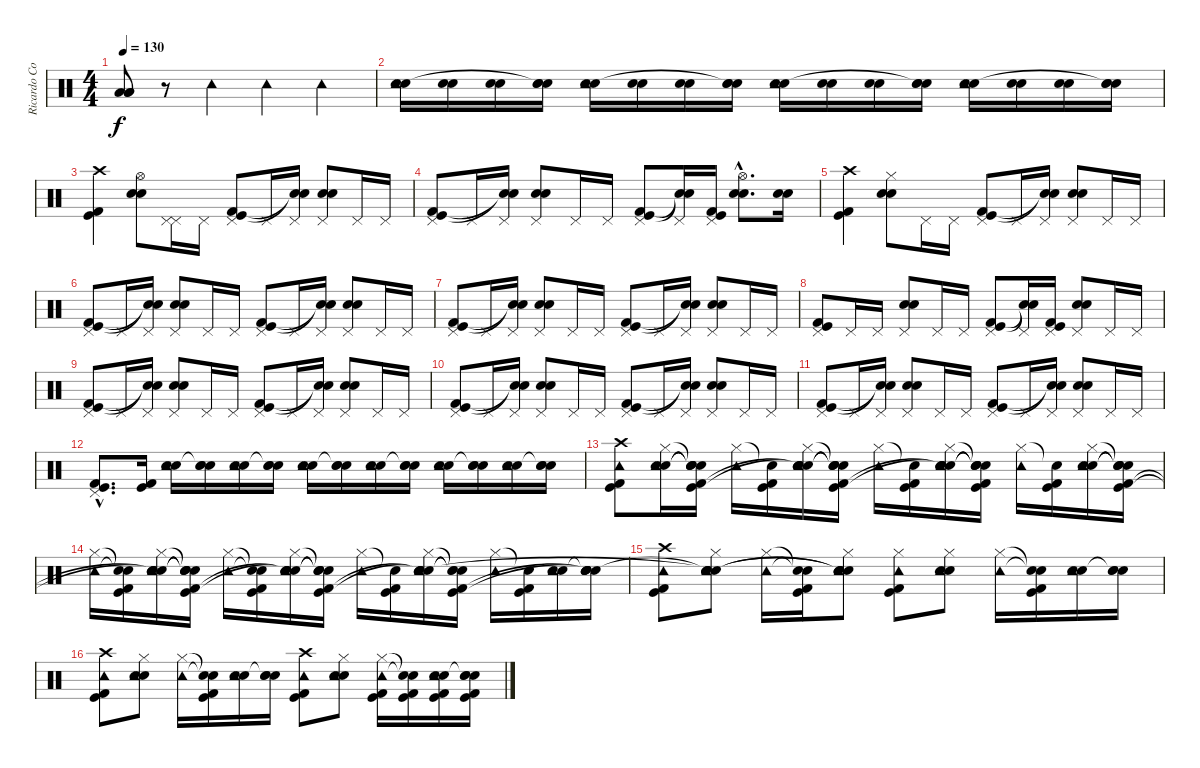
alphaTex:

\track ("Ricardo Confessori" "Ricardo Co") {instrument percussion}
\staff {score}
\articulation defaults
\ts (4 4)
\tempo 130
\clef neutral
\ks c
("Low Tom (hit)" "Low Tom (hit)" "Low Tom (hit)").8{dy f} r.8 "Tambourine (hit)".4 "Tambourine (hit)".4 "Tambourine (hit)".4 |
("Electric Snare (hit)" "Snare (hit) 2" "Tambourine (hit)").16 ("Electric Snare (hit)" "Snare (hit) 2").16 ("Electric Snare (hit)" "Snare (hit) 2").16 ("Electric Snare (hit)" "Snare (hit) 2" "Snare (hit)"{t}).16 ("Electric Snare (hit)" "Snare (hit) 2" "Tambourine (hit)").16 ("Electric Snare (hit)" "Snare (hit) 2").16 ("Electric Snare (hit)" "Snare (hit) 2").16 ("Electric Snare (hit)" "Snare (hit) 2" "Snare (hit)"{t}).16 ("Electric Snare (hit)" "Snare (hit) 2" "Tambourine (hit)").16 ("Electric Snare (hit)" "Snare (hit) 2").16 ("Electric Snare (hit)" "Snare (hit) 2").16 ("Electric Snare (hit)" "Snare (hit) 2" "Snare (hit)"{t}).16 ("Electric Snare (hit)" "Snare (hit) 2" "Tambourine (hit)").16 ("Electric Snare (hit)" "Snare (hit) 2").16 ("Electric Snare (hit)" "Snare (hit) 2").16 ("Electric Snare (hit)" "Snare (hit) 2" "Snare (hit)"{t}).16 |
("Crash high (hit)" "Kick (hit)" "Kick (hit) 2").4 ("Hi-Hat (open)" "Electric Snare (hit)" "Snare (hit) 2").8 ("Pedal Hi-Hat (hit)" "Pedal Hi-Hat (hit)").16 "Pedal Hi-Hat (hit)".16 ("Pedal Hi-Hat (hit)" "Kick (hit)" "Kick (hit) 2").8 "Pedal Hi-Hat (hit)".16 ("Pedal Hi-Hat (hit)" "Snare (hit)"{t} "Snare (hit)"{t}).16 ("Pedal Hi-Hat (hit)" "Electric Snare (hit)" "Snare (hit) 2").8 "Pedal Hi-Hat (hit)".16 "Pedal Hi-Hat (hit)".16 |
("Pedal Hi-Hat (hit)" "Kick (hit) 2" "Kick (hit)").8 "Pedal Hi-Hat (hit)".16 ("Pedal Hi-Hat (hit)" "Snare (hit)"{t} "Snare (hit)"{t}).16 ("Pedal Hi-Hat (hit)" "Electric Snare (hit)" "Snare (hit) 2").8 "Pedal Hi-Hat (hit)".16 "Pedal Hi-Hat (hit)".16 ("Pedal Hi-Hat (hit)" "Kick (hit)" "Kick (hit) 2").8 ("Pedal Hi-Hat (hit)" "Snare (hit)"{t} "Snare (hit)"{t}).16 ("Pedal Hi-Hat (hit)" "Kick (hit)" "Kick (hit) 2").16 ("Hi-Hat (open)"{hac} "Electric Snare (hit)"{hac} "Snare (hit) 2"{hac}).8{d} ("Electric Snare (hit)" "Snare (hit) 2").16 |
("Crash high (hit)" "Kick (hit) 2" "Kick (hit)").4 ("Hi-Hat (closed)" "Electric Snare (hit)" "Snare (hit) 2").8 "Pedal Hi-Hat (hit)".16 "Pedal Hi-Hat (hit)".16 ("Pedal Hi-Hat (hit)" "Kick (hit)" "Kick (hit) 2").8 "Pedal Hi-Hat (hit)".16 ("Pedal Hi-Hat (hit)" "Snare (hit)"{t} "Snare (hit)"{t}).16 ("Pedal Hi-Hat (hit)" "Electric Snare (hit)" "Snare (hit) 2").8 "Pedal Hi-Hat (hit)".16 "Pedal Hi-Hat (hit)".16 |
("Pedal Hi-Hat (hit)" "Kick (hit)" "Kick (hit) 2").8 "Pedal Hi-Hat (hit)".16 ("Pedal Hi-Hat (hit)" "Snare (hit)"{t} "Snare (hit)"{t}).16 ("Pedal Hi-Hat (hit)" "Electric Snare (hit)" "Snare (hit) 2").8 "Pedal Hi-Hat (hit)".16 "Pedal Hi-Hat (hit)".16 ("Pedal Hi-Hat (hit)" "Kick (hit)" "Kick (hit) 2").8 "Pedal Hi-Hat (hit)".16 ("Pedal Hi-Hat (hit)" "Snare (hit)"{t} "Snare (hit)"{t}).16 ("Pedal Hi-Hat (hit)" "Electric Snare (hit)" "Snare (hit) 2").8 "Pedal Hi-Hat (hit)".16 "Pedal Hi-Hat (hit)".16 |
("Pedal Hi-Hat (hit)" "Kick (hit)" "Kick (hit) 2").8 "Pedal Hi-Hat (hit)".16 ("Pedal Hi-Hat (hit)" "Snare (hit)"{t} "Snare (hit)"{t}).16 ("Pedal Hi-Hat (hit)" "Electric Snare (hit)" "Snare (hit) 2").8 "Pedal Hi-Hat (hit)".16 "Pedal Hi-Hat (hit)".16 ("Pedal Hi-Hat (hit)" "Kick (hit)" "Kick (hit) 2").8 "Pedal Hi-Hat (hit)".16 ("Pedal Hi-Hat (hit)" "Snare (hit)"{t} "Snare (hit)"{t}).16 ("Pedal Hi-Hat (hit)" "Electric Snare (hit)" "Snare (hit) 2").8 "Pedal Hi-Hat (hit)".16 "Pedal Hi-Hat (hit)".16 |
("Pedal Hi-Hat (hit)" "Kick (hit) 2" "Kick (hit)").8 "Pedal Hi-Hat (hit)".16 "Pedal Hi-Hat (hit)".16 ("Pedal Hi-Hat (hit)" "Electric Snare (hit)" "Snare (hit) 2").8 "Pedal Hi-Hat (hit)".16 "Pedal Hi-Hat (hit)".16 ("Pedal Hi-Hat (hit)" "Kick (hit) 2" "Kick (hit)").8 ("Pedal Hi-Hat (hit)" "Snare (hit)"{t} "Snare (hit)"{t}).16 ("Pedal Hi-Hat (hit)" "Kick (hit) 2" "Kick (hit)").16 ("Pedal Hi-Hat (hit)" "Electric Snare (hit)" "Snare (hit) 2").8 "Pedal Hi-Hat (hit)".16 "Pedal Hi-Hat (hit)".16 |
("Pedal Hi-Hat (hit)" "Kick (hit)" "Kick (hit) 2").8 "Pedal Hi-Hat (hit)".16 ("Pedal Hi-Hat (hit)" "Snare (hit)"{t} "Snare (hit)"{t}).16 ("Pedal Hi-Hat (hit)" "Electric Snare (hit)" "Snare (hit) 2").8 "Pedal Hi-Hat (hit)".16 "Pedal Hi-Hat (hit)".16 ("Pedal Hi-Hat (hit)" "Kick (hit)" "Kick (hit) 2").8 "Pedal Hi-Hat (hit)".16 ("Pedal Hi-Hat (hit)" "Snare (hit)"{t} "Snare (hit)"{t}).16 ("Pedal Hi-Hat (hit)" "Electric Snare (hit)" "Snare (hit) 2").8 "Pedal Hi-Hat (hit)".16 "Pedal Hi-Hat (hit)".16 |
("Pedal Hi-Hat (hit)" "Kick (hit)" "Kick (hit) 2").8 "Pedal Hi-Hat (hit)".16 ("Pedal Hi-Hat (hit)" "Snare (hit)"{t} "Snare (hit)"{t}).16 ("Pedal Hi-Hat (hit)" "Electric Snare (hit)" "Snare (hit) 2").8 "Pedal Hi-Hat (hit)".16 "Pedal Hi-Hat (hit)".16 ("Pedal Hi-Hat (hit)" "Kick (hit)" "Kick (hit) 2").8 "Pedal Hi-Hat (hit)".16 ("Pedal Hi-Hat (hit)" "Snare (hit)"{t} "Snare (hit)"{t}).16 ("Pedal Hi-Hat (hit)" "Electric Snare (hit)" "Snare (hit) 2").8 "Pedal Hi-Hat (hit)".16 "Pedal Hi-Hat (hit)".16 |
("Pedal Hi-Hat (hit)" "Kick (hit)" "Kick (hit) 2").8 "Pedal Hi-Hat (hit)".16 ("Pedal Hi-Hat (hit)" "Snare (hit)"{t} "Snare (hit)"{t}).16 ("Pedal Hi-Hat (hit)" "Electric Snare (hit)" "Snare (hit) 2").8 "Pedal Hi-Hat (hit)".16 "Pedal Hi-Hat (hit)".16 ("Pedal Hi-Hat (hit)" "Kick (hit)" "Kick (hit) 2").8 "Pedal Hi-Hat (hit)".16 ("Pedal Hi-Hat (hit)" "Snare (hit)"{t} "Snare (hit)"{t}).16 ("Pedal Hi-Hat (hit)" "Electric Snare (hit)" "Snare (hit) 2").8 "Pedal Hi-Hat (hit)".16 "Pedal Hi-Hat (hit)".16 |
("Pedal Hi-Hat (hit)"{hac} "Kick (hit)"{hac} "Kick (hit) 2"{hac}).8{d} ("Kick (hit) 2" "Kick (hit)").16 ("Electric Snare (hit)" "Snare (hit) 2" "Tambourine (hit)").16 ("Electric Snare (hit)" "Snare (hit) 2" "Snare (hit)"{t}).16 ("Electric Snare (hit)" "Snare (hit) 2" "Tambourine (hit)").16 ("Electric Snare (hit)" "Snare (hit) 2" "Snare (hit)"{t}).16 ("Electric Snare (hit)" "Snare (hit) 2" "Tambourine (hit)").16 ("Electric Snare (hit)" "Snare (hit) 2" "Snare (hit)"{t}).16 ("Electric Snare (hit)" "Snare (hit) 2" "Tambourine (hit)").16 ("Electric Snare (hit)" "Snare (hit) 2" "Snare (hit)"{t}).16 ("Electric Snare (hit)" "Snare (hit) 2" "Tambourine (hit)").16 ("Electric Snare (hit)" "Snare (hit) 2" "Snare (hit)"{t}).16 ("Electric Snare (hit)" "Snare (hit) 2" "Tambourine (hit)").16 ("Electric Snare (hit)" "Snare (hit) 2" "Snare (hit)"{t}).16 |
("Crash high (hit)" "Tambourine (hit)" "Kick (hit) 2" "Kick (hit)").8 ("Hi-Hat (closed)" "Electric Snare (hit)" "Snare (hit) 2" "Tambourine (hit)").16 ("Snare (hit)"{t} "Snare (hit)"{t} "Snare (hit)"{t} "Snare (hit)"{t} "Kick (hit) 2" "Kick (hit)").16 ("Hi-Hat (closed)" "Tambourine (hit)").16 ("Snare (hit)"{t} "Kick (hit) 2" "Kick (hit)").16 ("Hi-Hat (closed)" "Electric Snare (hit)" "Snare (hit) 2" "Tambourine (hit)" "Snare (hit)"{t} "Snare (hit)"{t}).16 ("Snare (hit)"{t} "Snare (hit)"{t} "Snare (hit)"{t} "Snare (hit)"{t} "Kick (hit)" "Kick (hit) 2").16 ("Hi-Hat (closed)" "Tambourine (hit)").16 ("Snare (hit)"{t} "Kick (hit)" "Kick (hit) 2").16 ("Hi-Hat (closed)" "Electric Snare (hit)" "Snare (hit) 2" "Tambourine (hit)" "Snare (hit)"{t} "Snare (hit)"{t}).16 ("Snare (hit)"{t} "Snare (hit)"{t} "Snare (hit)"{t} "Snare (hit)"{t} "Kick (hit)" "Kick (hit) 2").16 ("Hi-Hat (closed)" "Tambourine (hit)").16 ("Snare (hit)"{t} "Kick (hit)" "Kick (hit) 2").16 ("Hi-Hat (closed)" "Electric Snare (hit)" "Snare (hit) 2" "Tambourine (hit)").16 ("Snare (hit)"{t} "Snare (hit)"{t} "Snare (hit)"{t} "Snare (hit)"{t} "Kick (hit)" "Kick (hit) 2").16 |
("Hi-Hat (closed)" "Tambourine (hit)").16 ("Snare (hit)"{t} "Snare (hit)"{t} "Kick (hit)" "Kick (hit) 2").16 ("Hi-Hat (closed)" "Electric Snare (hit)" "Snare (hit) 2" "Tambourine (hit)" "Snare (hit)"{t} "Snare (hit)"{t}).16 ("Snare (hit)"{t} "Snare (hit)"{t} "Snare (hit)"{t} "Snare (hit)"{t} "Kick (hit)" "Kick (hit) 2").16 ("Hi-Hat (closed)" "Tambourine (hit)").16 ("Snare (hit)"{t} "Snare (hit)"{t} "Kick (hit)" "Kick (hit) 2").16 ("Hi-Hat (closed)" "Electric Snare (hit)" "Snare (hit) 2" "Tambourine (hit)" "Snare (hit)"{t} "Snare (hit)"{t}).16 ("Snare (hit)"{t} "Snare (hit)"{t} "Snare (hit)"{t} "Snare (hit)"{t} "Kick (hit)" "Kick (hit) 2").16 ("Hi-Hat (closed)" "Tambourine (hit)").16 ("Snare (hit)"{t} "Kick (hit)" "Kick (hit) 2").16 ("Hi-Hat (closed)" "Electric Snare (hit)" "Snare (hit) 2" "Tambourine (hit)" "Snare (hit)"{t} "Snare (hit)"{t}).16 ("Snare (hit)"{t} "Snare (hit)"{t} "Snare (hit)"{t} "Kick (hit)" "Kick (hit) 2").16 ("Hi-Hat (closed)" "Tambourine (hit)").16 ("Snare (hit)"{t} "Kick (hit)" "Kick (hit) 2").16 ("Electric Snare (hit)" "Snare (hit) 2" "Tambourine (hit)").16 ("Electric Snare (hit)" "Snare (hit) 2" "Snare (hit)"{t} "Snare (hit)"{t} "Snare (hit)"{t}).16 |
("Crash high (hit)" "Tambourine (hit)" "Kick (hit)" "Kick (hit) 2").8 ("Hi-Hat (closed)" "Electric Snare (hit)" "Snare (hit) 2" "Tambourine (hit)" "Snare (hit)"{t} "Snare (hit)"{t}).8 ("Hi-Hat (closed)" "Tambourine (hit)").16 ("Snare (hit)"{t} "Snare (hit)"{t} "Kick (hit) 2" "Kick (hit)").16 ("Hi-Hat (closed)" "Electric Snare (hit)" "Snare (hit) 2" "Tambourine (hit)" "Snare (hit)"{t} "Snare (hit)"{t}).8 ("Hi-Hat (closed)" "Tambourine (hit)" "Kick (hit)" "Kick (hit) 2").8 ("Hi-Hat (closed)" "Electric Snare (hit)" "Snare (hit) 2" "Tambourine (hit)").8 ("Hi-Hat (closed)" "Tambourine (hit)").16 ("Snare (hit)"{t} "Snare (hit)"{t} "Kick (hit)" "Kick (hit) 2").16 ("Electric Snare (hit)" "Snare (hit) 2" "Tambourine (hit)").16 ("Electric Snare (hit)" "Snare (hit) 2" "Snare (hit)"{t}).16 |
("Crash high (hit)" "Tambourine (hit)" "Kick (hit)" "Kick (hit) 2").8 ("Hi-Hat (closed)" "Electric Snare (hit)" "Snare (hit) 2" "Tambourine (hit)").8 ("Hi-Hat (closed)" "Tambourine (hit)").16 ("Snare (hit)"{t} "Snare (hit)"{t} "Kick (hit)" "Kick (hit) 2").16 ("Electric Snare (hit)" "Snare (hit) 2" "Tambourine (hit)").16 ("Electric Snare (hit)" "Snare (hit) 2" "Snare (hit)"{t}).16 ("Crash high (hit)" "Tambourine (hit)" "Kick (hit) 2" "Kick (hit)").8 ("Hi-Hat (closed)" "Electric Snare (hit)" "Snare (hit) 2" "Tambourine (hit)").8 ("Hi-Hat (closed)" "Tambourine (hit)" "Kick (hit)" "Kick (hit) 2").16 ("Snare (hit)"{t} "Snare (hit)"{t} "Kick (hit)" "Kick (hit) 2").16 ("Electric Snare (hit)" "Snare (hit) 2" "Tambourine (hit)" "Kick (hit)" "Kick (hit) 2").16 ("Electric Snare (hit)" "Snare (hit) 2" "Snare (hit)"{t} "Kick (hit) 2" "Kick (hit)").16
